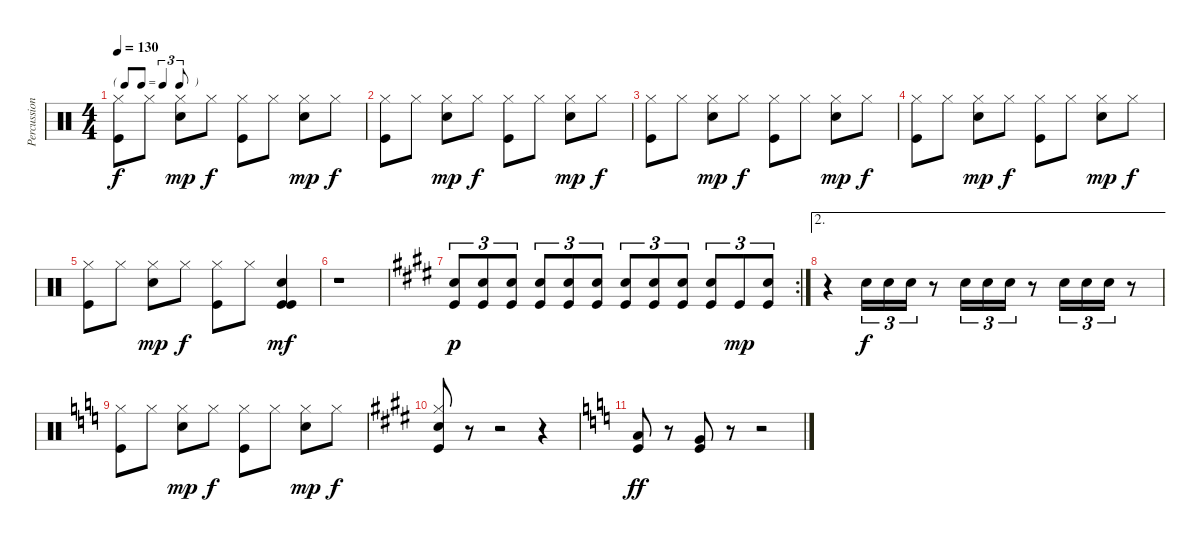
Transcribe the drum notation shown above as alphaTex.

\track ("Percussion" "Percussion") {instrument percussion}
\staff {score}
\articulation defaults
\ts (4 4)
\tf triplet8th
\tempo 130
\clef neutral
\ks c
("Kick (hit)" "Hi-Hat (closed)").8{dy f} "Hi-Hat (closed)".8 ("Electric Snare (hit)" "Hi-Hat (closed)").8{dy mp} "Hi-Hat (closed)".8{dy f} ("Kick (hit)" "Hi-Hat (closed)").8 "Hi-Hat (closed)".8 ("Electric Snare (hit)" "Hi-Hat (closed)").8{dy mp} "Hi-Hat (closed)".8{dy f} |
("Kick (hit)" "Hi-Hat (closed)").8 "Hi-Hat (closed)".8 ("Electric Snare (hit)" "Hi-Hat (closed)").8{dy mp} "Hi-Hat (closed)".8{dy f} ("Kick (hit)" "Hi-Hat (closed)").8 "Hi-Hat (closed)".8 ("Electric Snare (hit)" "Hi-Hat (closed)").8{dy mp} "Hi-Hat (closed)".8{dy f} |
("Kick (hit)" "Hi-Hat (closed)").8 "Hi-Hat (closed)".8 ("Electric Snare (hit)" "Hi-Hat (closed)").8{dy mp} "Hi-Hat (closed)".8{dy f} ("Kick (hit)" "Hi-Hat (closed)").8 "Hi-Hat (closed)".8 ("Electric Snare (hit)" "Hi-Hat (closed)").8{dy mp} "Hi-Hat (closed)".8{dy f} |
("Kick (hit)" "Hi-Hat (closed)").8 "Hi-Hat (closed)".8 ("Electric Snare (hit)" "Hi-Hat (closed)").8{dy mp} "Hi-Hat (closed)".8{dy f} ("Kick (hit)" "Hi-Hat (closed)").8 "Hi-Hat (closed)".8 ("Electric Snare (hit)" "Hi-Hat (closed)").8{dy mp} "Hi-Hat (closed)".8{dy f} |
("Kick (hit)" "Hi-Hat (closed)").8 "Hi-Hat (closed)".8 ("Electric Snare (hit)" "Hi-Hat (closed)").8{dy mp} "Hi-Hat (closed)".8{dy f} ("Kick (hit)" "Hi-Hat (closed)").8 "Hi-Hat (closed)".8 ("Kick (hit)" "Electric Snare (hit)" "Kick (hit)").4{dy mf} |
r.1 |
\rc 2
\ks e
("Kick (hit)" "Snare (hit) 2").8{tu (3 2) dy p} ("Kick (hit)" "Snare (hit) 2").8{tu (3 2)} ("Kick (hit)" "Snare (hit) 2").8{tu (3 2)} ("Kick (hit)" "Snare (hit) 2").8{tu (3 2)} ("Kick (hit)" "Snare (hit) 2").8{tu (3 2)} ("Kick (hit)" "Snare (hit) 2").8{tu (3 2)} ("Kick (hit)" "Snare (hit) 2").8{tu (3 2)} ("Kick (hit)" "Snare (hit) 2").8{tu (3 2)} ("Kick (hit)" "Snare (hit) 2").8{tu (3 2)} ("Kick (hit)" "Snare (hit) 2").8{tu (3 2)} "Kick (hit)".8{tu (3 2) dy mp} ("Kick (hit)" "Snare (hit) 2").8{tu (3 2)} |
\ae 2
r.4 "Snare (hit) 2".16{tu (3 2) dy f} "Snare (hit) 2".16{tu (3 2)} "Snare (hit) 2".16{tu (3 2)} r.8 "Snare (hit) 2".16{tu (3 2)} "Snare (hit) 2".16{tu (3 2)} "Snare (hit) 2".16{tu (3 2)} r.8 "Snare (hit) 2".16{tu (3 2)} "Snare (hit) 2".16{tu (3 2)} "Snare (hit) 2".16{tu (3 2)} r.8 |
\ks c
("Kick (hit)" "Hi-Hat (closed)").8 "Hi-Hat (closed)".8 ("Electric Snare (hit)" "Hi-Hat (closed)").8{dy mp} "Hi-Hat (closed)".8{dy f} ("Kick (hit)" "Hi-Hat (closed)").8 "Hi-Hat (closed)".8 ("Electric Snare (hit)" "Hi-Hat (closed)").8{dy mp} "Hi-Hat (closed)".8{dy f} |
\ks e
("Kick (hit)" "Electric Snare (hit)" "Hi-Hat (closed)").8 r.8 r.2 r.4 |
\ks c
("Kick (hit)" "Low Tom (hit)").8{dy ff} r.8 ("Kick (hit)" "Very Low Tom (hit)").8 r.8 r.2
